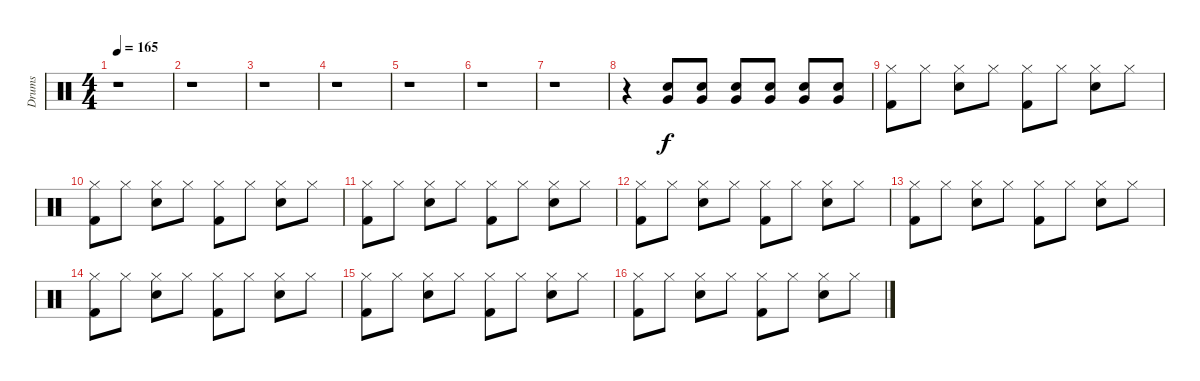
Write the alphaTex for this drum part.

\track ("Drums" "Drums") {instrument percussion}
\staff {score}
\articulation defaults
\ts (4 4)
\tempo 165
\clef neutral
\ks c
r.1{dy f} |
r.1 |
r.1 |
r.1 |
r.1 |
r.1 |
r.1 |
r.4 ("Very Low Tom (hit)" "Electric Snare (hit)").8 ("Very Low Tom (hit)" "Electric Snare (hit)").8 ("Very Low Tom (hit)" "Electric Snare (hit)").8 ("Very Low Tom (hit)" "Electric Snare (hit)").8 ("Very Low Tom (hit)" "Electric Snare (hit)").8 ("Very Low Tom (hit)" "Electric Snare (hit)").8 |
("Kick (hit) 2" "Hi-Hat (closed)").8 "Hi-Hat (closed)".8 ("Electric Snare (hit)" "Hi-Hat (closed)").8 "Hi-Hat (closed)".8 ("Kick (hit) 2" "Hi-Hat (closed)").8 "Hi-Hat (closed)".8 ("Electric Snare (hit)" "Hi-Hat (closed)").8 "Hi-Hat (closed)".8 |
("Kick (hit) 2" "Hi-Hat (closed)").8 "Hi-Hat (closed)".8 ("Electric Snare (hit)" "Hi-Hat (closed)").8 "Hi-Hat (closed)".8 ("Kick (hit) 2" "Hi-Hat (closed)").8 "Hi-Hat (closed)".8 ("Electric Snare (hit)" "Hi-Hat (closed)").8 "Hi-Hat (closed)".8 |
("Kick (hit) 2" "Hi-Hat (closed)").8 "Hi-Hat (closed)".8 ("Electric Snare (hit)" "Hi-Hat (closed)").8 "Hi-Hat (closed)".8 ("Kick (hit) 2" "Hi-Hat (closed)").8 "Hi-Hat (closed)".8 ("Electric Snare (hit)" "Hi-Hat (closed)").8 "Hi-Hat (closed)".8 |
("Kick (hit) 2" "Hi-Hat (closed)").8 "Hi-Hat (closed)".8 ("Electric Snare (hit)" "Hi-Hat (closed)").8 "Hi-Hat (closed)".8 ("Kick (hit) 2" "Hi-Hat (closed)").8 "Hi-Hat (closed)".8 ("Electric Snare (hit)" "Hi-Hat (closed)").8 "Hi-Hat (closed)".8 |
("Kick (hit) 2" "Hi-Hat (closed)").8 "Hi-Hat (closed)".8 ("Electric Snare (hit)" "Hi-Hat (closed)").8 "Hi-Hat (closed)".8 ("Kick (hit) 2" "Hi-Hat (closed)").8 "Hi-Hat (closed)".8 ("Electric Snare (hit)" "Hi-Hat (closed)").8 "Hi-Hat (closed)".8 |
("Kick (hit) 2" "Hi-Hat (closed)").8 "Hi-Hat (closed)".8 ("Electric Snare (hit)" "Hi-Hat (closed)").8 "Hi-Hat (closed)".8 ("Kick (hit) 2" "Hi-Hat (closed)").8 "Hi-Hat (closed)".8 ("Electric Snare (hit)" "Hi-Hat (closed)").8 "Hi-Hat (closed)".8 |
("Kick (hit) 2" "Hi-Hat (closed)").8 "Hi-Hat (closed)".8 ("Electric Snare (hit)" "Hi-Hat (closed)").8 "Hi-Hat (closed)".8 ("Kick (hit) 2" "Hi-Hat (closed)").8 "Hi-Hat (closed)".8 ("Electric Snare (hit)" "Hi-Hat (closed)").8 "Hi-Hat (closed)".8 |
("Kick (hit) 2" "Hi-Hat (closed)").8 "Hi-Hat (closed)".8 ("Electric Snare (hit)" "Hi-Hat (closed)").8 "Hi-Hat (closed)".8 ("Kick (hit) 2" "Hi-Hat (closed)").8 "Hi-Hat (closed)".8 ("Electric Snare (hit)" "Hi-Hat (closed)").8 "Hi-Hat (closed)".8
